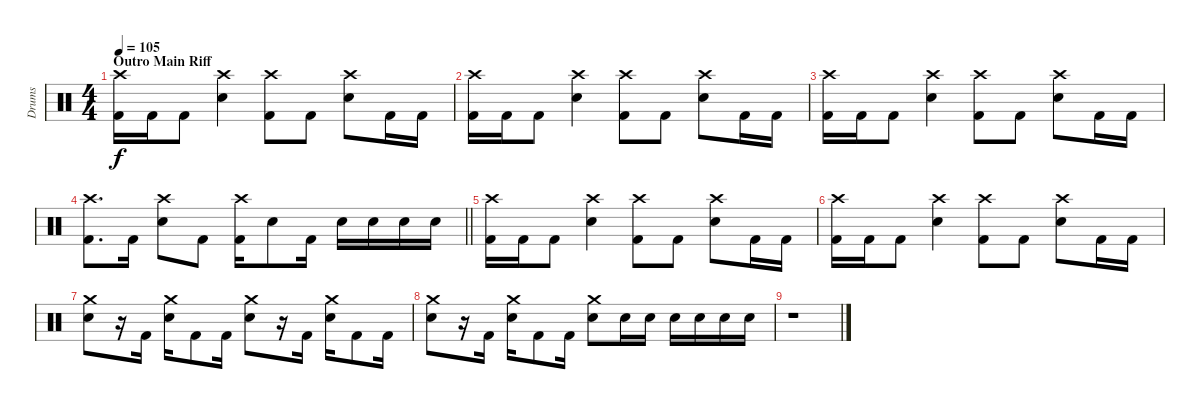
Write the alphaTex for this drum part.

\track ("Drums" "Drums") {instrument percussion}
\staff {score}
\articulation defaults
\ts (4 4)
\section ("" "Outro Main Riff")
\tempo 105
\clef neutral
\ks c
("Crash high (hit)" "Kick (hit) 2").16{dy f} "Kick (hit) 2".16 "Kick (hit) 2".8 ("Crash high (hit)" "Snare (hit) 2").4 ("Crash high (hit)" "Kick (hit) 2").8 "Kick (hit) 2".8 ("Crash high (hit)" "Snare (hit) 2").8 "Kick (hit) 2".16 "Kick (hit) 2".16 |
("Crash high (hit)" "Kick (hit) 2").16 "Kick (hit) 2".16 "Kick (hit) 2".8 ("Crash high (hit)" "Snare (hit) 2").4 ("Crash high (hit)" "Kick (hit) 2").8 "Kick (hit) 2".8 ("Crash high (hit)" "Snare (hit) 2").8 "Kick (hit) 2".16 "Kick (hit) 2".16 |
("Crash high (hit)" "Kick (hit) 2").16 "Kick (hit) 2".16 "Kick (hit) 2".8 ("Crash high (hit)" "Snare (hit) 2").4 ("Crash high (hit)" "Kick (hit) 2").8 "Kick (hit) 2".8 ("Crash high (hit)" "Snare (hit) 2").8 "Kick (hit) 2".16 "Kick (hit) 2".16 |
\barLineRight lightlight
("Crash high (hit)" "Kick (hit) 2").8{d} "Kick (hit) 2".16 ("Crash high (hit)" "Snare (hit) 2").8 "Kick (hit) 2".8 ("Crash high (hit)" "Kick (hit) 2").16 "Snare (hit) 2".8 "Kick (hit) 2".16 "Snare (hit) 2".16 "Snare (hit) 2".16 "Snare (hit) 2".16 "Snare (hit) 2".16 |
\section ("" "")
("Crash high (hit)" "Kick (hit) 2").16 "Kick (hit) 2".16 "Kick (hit) 2".8 ("Crash high (hit)" "Snare (hit) 2").4 ("Crash high (hit)" "Kick (hit) 2").8 "Kick (hit) 2".8 ("Crash high (hit)" "Snare (hit) 2").8 "Kick (hit) 2".16 "Kick (hit) 2".16 |
("Crash high (hit)" "Kick (hit) 2").16 "Kick (hit) 2".16 "Kick (hit) 2".8 ("Crash high (hit)" "Snare (hit) 2").4 ("Crash high (hit)" "Kick (hit) 2").8 "Kick (hit) 2".8 ("Crash high (hit)" "Snare (hit) 2").8 "Kick (hit) 2".16 "Kick (hit) 2".16 |
("Crash medium (hit)" "Snare (hit) 2").8 r.16 "Kick (hit) 2".16 ("Crash medium (hit)" "Snare (hit) 2").16 "Kick (hit) 2".8 "Kick (hit) 2".16 ("Crash medium (hit)" "Snare (hit) 2").8 r.16 "Kick (hit) 2".16 ("Crash medium (hit)" "Snare (hit) 2").16 "Kick (hit) 2".8 "Kick (hit) 2".16 |
("Crash medium (hit)" "Snare (hit) 2").8 r.16 "Kick (hit) 2".16 ("Crash medium (hit)" "Snare (hit) 2").16 "Kick (hit) 2".8 "Kick (hit) 2".16 ("Crash medium (hit)" "Snare (hit) 2").8 "Snare (hit) 2".16 "Snare (hit) 2".16 "Snare (hit) 2".16 "Snare (hit) 2".16 "Snare (hit) 2".16 "Snare (hit) 2".16 |
r.1
